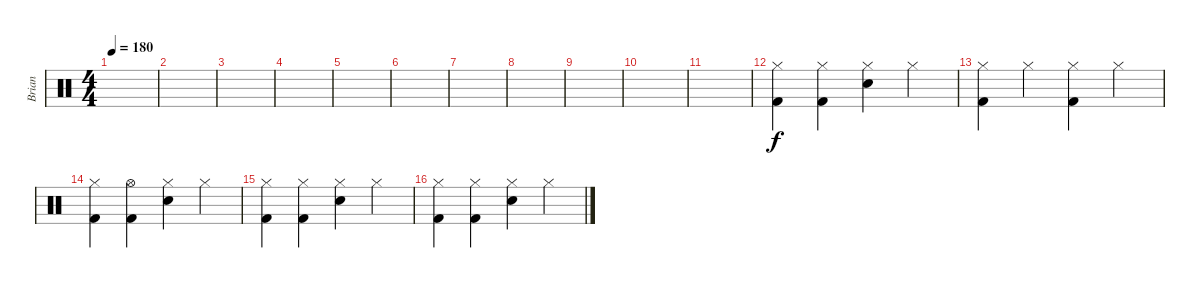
\track ("Brian" "Brian") {instrument percussion}
\staff {score}
\articulation defaults
\ts (4 4)
\tempo 180
\clef neutral
\ks c
|
|
|
|
|
|
|
|
|
|
|
("Hi-Hat (closed)" "Kick (hit) 2").4 ("Hi-Hat (closed)" "Kick (hit) 2").4 ("Hi-Hat (closed)" "Snare (hit) 2").4 "Hi-Hat (closed)".4 |
("Hi-Hat (closed)" "Kick (hit) 2").4 "Hi-Hat (closed)".4 ("Hi-Hat (closed)" "Kick (hit) 2").4 "Hi-Hat (closed)".4 |
("Hi-Hat (closed)" "Kick (hit) 2").4 ("Hi-Hat (open)" "Kick (hit) 2").4 ("Hi-Hat (closed)" "Snare (hit) 2").4 "Hi-Hat (closed)".4 |
("Hi-Hat (closed)" "Kick (hit) 2").4 ("Hi-Hat (closed)" "Kick (hit) 2").4 ("Hi-Hat (closed)" "Snare (hit) 2").4 "Hi-Hat (closed)".4 |
("Hi-Hat (closed)" "Kick (hit) 2").4 ("Hi-Hat (closed)" "Kick (hit) 2").4 ("Hi-Hat (closed)" "Snare (hit) 2").4 "Hi-Hat (closed)".4
